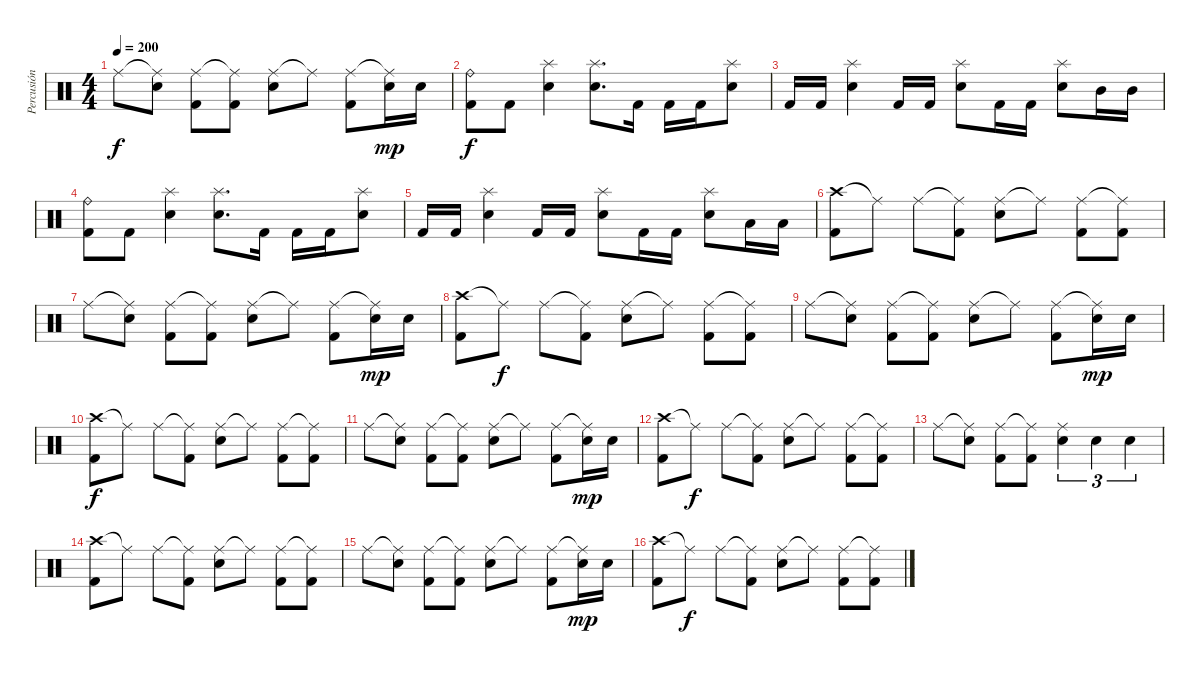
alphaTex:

\track ("Percusión" "Percusión") {instrument percussion}
\staff {score}
\articulation defaults
\ts (4 4)
\tempo 200
\clef neutral
\ks c "Ride (middle)".8{dy f}
("Ride (middle)"{t} "Snare (hit) 2").8 ("Ride (middle)" "Kick (hit) 2").8 ("Ride (middle)"{t} "Kick (hit) 2").8 ("Ride (middle)" "Snare (hit) 2").8 "Ride (middle)"{t}.8 ("Ride (middle)" "Kick (hit) 2").8 ("Ride (middle)"{t} "Snare (hit) 2").16{dy mp} "Snare (hit) 2".16 |
("Kick (hit) 2" "Ride (bell)").8{dy f} "Kick (hit) 2".8 ("Splash (hit)" "Snare (hit) 2").4 ("Splash (hit)" "Snare (hit) 2").8{d} "Kick (hit) 2".16 "Kick (hit) 2".16 "Kick (hit) 2".16 ("Splash (hit)" "Snare (hit) 2").8 |
"Kick (hit) 2".16 "Kick (hit) 2".16 ("Splash (hit)" "Snare (hit) 2").4 "Kick (hit) 2".16 "Kick (hit) 2".16 ("Splash (hit)" "Snare (hit) 2").8 "Kick (hit) 2".16 "Kick (hit) 2".16 ("Splash (hit)" "Snare (hit) 2").8 "Mid Tom (hit)".16 "Mid Tom (hit)".16 |
("Kick (hit) 2" "Ride (bell)").8 "Kick (hit) 2".8 ("Splash (hit)" "Snare (hit) 2").4 ("Splash (hit)" "Snare (hit) 2").8{d} "Kick (hit) 2".16 "Kick (hit) 2".16 "Kick (hit) 2".16 ("Splash (hit)" "Snare (hit) 2").8 |
"Kick (hit) 2".16 "Kick (hit) 2".16 ("Splash (hit)" "Snare (hit) 2").4 "Kick (hit) 2".16 "Kick (hit) 2".16 ("Splash (hit)" "Snare (hit) 2").8 "Kick (hit) 2".16 "Kick (hit) 2".16 ("Splash (hit)" "Snare (hit) 2").8 "Low Tom (hit)".16 "Low Tom (hit)".16 |
("Crash high (hit)" "Kick (hit) 2").8 "Ride (middle)"{t}.8 "Ride (middle)".8 ("Ride (middle)"{t} "Kick (hit) 2").8 ("Ride (middle)" "Snare (hit) 2").8 "Ride (middle)"{t}.8 ("Ride (middle)" "Kick (hit) 2").8 ("Ride (middle)"{t} "Kick (hit) 2").8 |
"Ride (middle)".8 ("Ride (middle)"{t} "Snare (hit) 2").8 ("Ride (middle)" "Kick (hit) 2").8 ("Ride (middle)"{t} "Kick (hit) 2").8 ("Ride (middle)" "Snare (hit) 2").8 "Ride (middle)"{t}.8 ("Ride (middle)" "Kick (hit) 2").8 ("Ride (middle)"{t} "Snare (hit) 2").16{dy mp} "Snare (hit) 2".16 |
("Crash high (hit)" "Kick (hit) 2").8 "Ride (middle)"{t}.8{dy f} "Ride (middle)".8 ("Ride (middle)"{t} "Kick (hit) 2").8 ("Ride (middle)" "Snare (hit) 2").8 "Ride (middle)"{t}.8 ("Ride (middle)" "Kick (hit) 2").8 ("Ride (middle)"{t} "Kick (hit) 2").8 |
"Ride (middle)".8 ("Ride (middle)"{t} "Snare (hit) 2").8 ("Ride (middle)" "Kick (hit) 2").8 ("Ride (middle)"{t} "Kick (hit) 2").8 ("Ride (middle)" "Snare (hit) 2").8 "Ride (middle)"{t}.8 ("Ride (middle)" "Kick (hit) 2").8 ("Ride (middle)"{t} "Snare (hit) 2").16{dy mp} "Snare (hit) 2".16 |
("Crash high (hit)" "Kick (hit) 2").8{dy f} "Ride (middle)"{t}.8 "Ride (middle)".8 ("Ride (middle)"{t} "Kick (hit) 2").8 ("Ride (middle)" "Snare (hit) 2").8 "Ride (middle)"{t}.8 ("Ride (middle)" "Kick (hit) 2").8 ("Ride (middle)"{t} "Kick (hit) 2").8 |
"Ride (middle)".8 ("Ride (middle)"{t} "Snare (hit) 2").8 ("Ride (middle)" "Kick (hit) 2").8 ("Ride (middle)"{t} "Kick (hit) 2").8 ("Ride (middle)" "Snare (hit) 2").8 "Ride (middle)"{t}.8 ("Ride (middle)" "Kick (hit) 2").8 ("Ride (middle)"{t} "Snare (hit) 2").16{dy mp} "Snare (hit) 2".16 |
("Crash high (hit)" "Kick (hit) 2").8 "Ride (middle)"{t}.8{dy f} "Ride (middle)".8 ("Ride (middle)"{t} "Kick (hit) 2").8 ("Ride (middle)" "Snare (hit) 2").8 "Ride (middle)"{t}.8 ("Ride (middle)" "Kick (hit) 2").8 ("Ride (middle)"{t} "Kick (hit) 2").8 |
"Ride (middle)".8 ("Ride (middle)"{t} "Snare (hit) 2").8 ("Ride (middle)" "Kick (hit) 2").8 ("Ride (middle)"{t} "Kick (hit) 2").8 ("Ride (middle)" "Snare (hit) 2").4{tu (3 2)} "Snare (hit) 2".4{tu (3 2)} "Snare (hit) 2".4{tu (3 2)} |
("Crash high (hit)" "Kick (hit) 2").8 "Ride (middle)"{t}.8 "Ride (middle)".8 ("Ride (middle)"{t} "Kick (hit) 2").8 ("Ride (middle)" "Snare (hit) 2").8 "Ride (middle)"{t}.8 ("Ride (middle)" "Kick (hit) 2").8 ("Ride (middle)"{t} "Kick (hit) 2").8 |
"Ride (middle)".8 ("Ride (middle)"{t} "Snare (hit) 2").8 ("Ride (middle)" "Kick (hit) 2").8 ("Ride (middle)"{t} "Kick (hit) 2").8 ("Ride (middle)" "Snare (hit) 2").8 "Ride (middle)"{t}.8 ("Ride (middle)" "Kick (hit) 2").8 ("Ride (middle)"{t} "Snare (hit) 2").16{dy mp} "Snare (hit) 2".16 |
("Crash high (hit)" "Kick (hit) 2").8 "Ride (middle)"{t}.8{dy f} "Ride (middle)".8 ("Ride (middle)"{t} "Kick (hit) 2").8 ("Ride (middle)" "Snare (hit) 2").8 "Ride (middle)"{t}.8 ("Ride (middle)" "Kick (hit) 2").8 ("Ride (middle)"{t} "Kick (hit) 2").8
